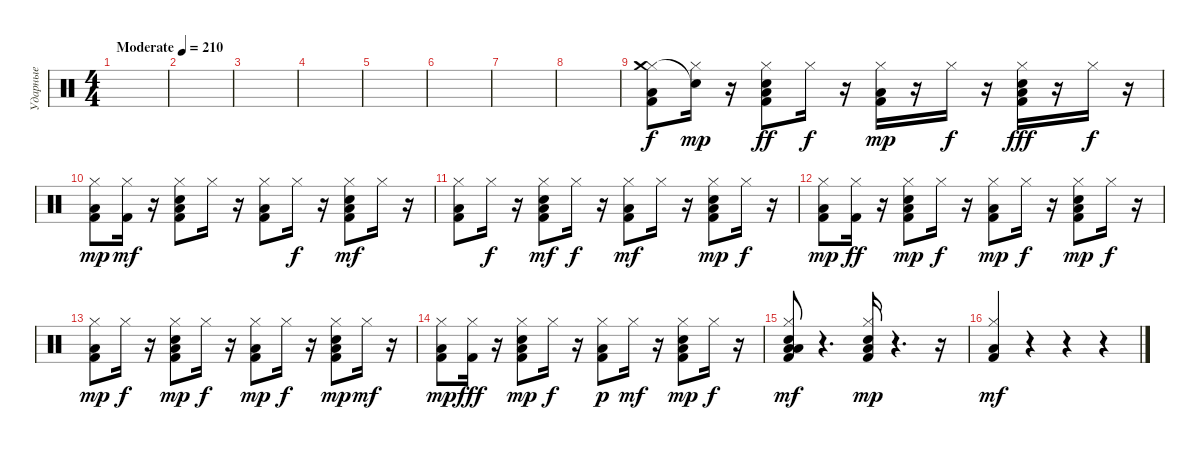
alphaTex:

\track ("Ударные" "Ударные") {instrument percussion}
\staff {score}
\articulation defaults
\ts (4 4)
\tempo (210 "Moderate")
\clef neutral
\ks c
|
|
|
|
|
|
|
|
("Kick (hit) 2" "Hi-Hat (closed)" "Low Floor Tom (hit)" "Crash medium (hit)").8 ("Hi-Hat (closed)" "Snare (hit)"{t}).16{dy mp} r.16 ("Kick (hit) 2" "Snare (hit) 2" "Hi-Hat (closed)" "Low Floor Tom (hit)").8{dy ff} "Hi-Hat (closed)".16{dy f} r.16 ("Kick (hit) 2" "Hi-Hat (closed)" "Low Floor Tom (hit)").16{dy mp} r.16 "Hi-Hat (closed)".16{dy f} r.16 ("Kick (hit) 2" "Snare (hit) 2" "Hi-Hat (closed)" "Low Floor Tom (hit)").16{dy fff} r.16 "Hi-Hat (closed)".16{dy f} r.16 |
("Kick (hit) 2" "Hi-Hat (closed)" "Low Floor Tom (hit)").8{dy mp} ("Kick (hit) 2" "Hi-Hat (closed)").16{dy mf} r.16 ("Kick (hit) 2" "Snare (hit) 2" "Hi-Hat (closed)" "Low Floor Tom (hit)").8 "Hi-Hat (closed)".16 r.16 ("Kick (hit) 2" "Hi-Hat (closed)" "Low Floor Tom (hit)").8 "Hi-Hat (closed)".16{dy f} r.16 ("Kick (hit) 2" "Snare (hit) 2" "Hi-Hat (closed)" "Low Floor Tom (hit)").8{dy mf} "Hi-Hat (closed)".16 r.16 |
("Kick (hit) 2" "Hi-Hat (closed)" "Low Floor Tom (hit)").8 "Hi-Hat (closed)".16{dy f} r.16 ("Kick (hit) 2" "Snare (hit) 2" "Hi-Hat (closed)" "Low Floor Tom (hit)").8{dy mf} "Hi-Hat (closed)".16{dy f} r.16 ("Kick (hit) 2" "Hi-Hat (closed)" "Low Floor Tom (hit)").8{dy mf} "Hi-Hat (closed)".16 r.16 ("Kick (hit) 2" "Snare (hit) 2" "Hi-Hat (closed)" "Low Floor Tom (hit)").8{dy mp} "Hi-Hat (closed)".16{dy f} r.16 |
("Kick (hit) 2" "Hi-Hat (closed)" "Low Floor Tom (hit)").8{dy mp} ("Kick (hit) 2" "Hi-Hat (closed)").16{dy ff} r.16 ("Kick (hit) 2" "Snare (hit) 2" "Hi-Hat (closed)" "Low Floor Tom (hit)").8{dy mp} "Hi-Hat (closed)".16{dy f} r.16 ("Kick (hit) 2" "Hi-Hat (closed)" "Low Floor Tom (hit)").8{dy mp} "Hi-Hat (closed)".16{dy f} r.16 ("Kick (hit) 2" "Snare (hit) 2" "Hi-Hat (closed)" "Low Floor Tom (hit)").8{dy mp} "Hi-Hat (closed)".16{dy f} r.16 |
("Kick (hit) 2" "Hi-Hat (closed)" "Low Floor Tom (hit)").8{dy mp} "Hi-Hat (closed)".16{dy f} r.16 ("Kick (hit) 2" "Snare (hit) 2" "Hi-Hat (closed)" "Low Floor Tom (hit)").8{dy mp} "Hi-Hat (closed)".16{dy f} r.16 ("Kick (hit) 2" "Hi-Hat (closed)" "Low Floor Tom (hit)").8{dy mp} "Hi-Hat (closed)".16{dy f} r.16 ("Kick (hit) 2" "Snare (hit) 2" "Hi-Hat (closed)" "Low Floor Tom (hit)").8{dy mp} "Hi-Hat (closed)".16{dy mf} r.16 |
("Kick (hit) 2" "Hi-Hat (closed)" "Low Floor Tom (hit)").8{dy mp} ("Kick (hit) 2" "Hi-Hat (closed)").16{dy fff} r.16 ("Kick (hit) 2" "Snare (hit) 2" "Hi-Hat (closed)" "Low Floor Tom (hit)").8{dy mp} "Hi-Hat (closed)".16{dy f} r.16 ("Kick (hit) 2" "Hi-Hat (closed)" "Low Floor Tom (hit)").8{dy p} "Hi-Hat (closed)".16{dy mf} r.16 ("Kick (hit) 2" "Snare (hit) 2" "Hi-Hat (closed)" "Low Floor Tom (hit)").8{dy mp} "Hi-Hat (closed)".16{dy f} r.16 |
("Kick (hit) 2" "Snare (hit) 2" "Hi-Hat (closed)" "Low Floor Tom (hit)" "Low Tom (hit)").8{dy mf} r.4{d} ("Kick (hit) 2" "Snare (hit) 2" "Hi-Hat (closed)" "Low Floor Tom (hit)").16{dy mp} r.4{d} r.16 |
("Kick (hit) 2" "Hi-Hat (closed)" "Low Floor Tom (hit)").4{dy mf} r.4 r.4 r.4
